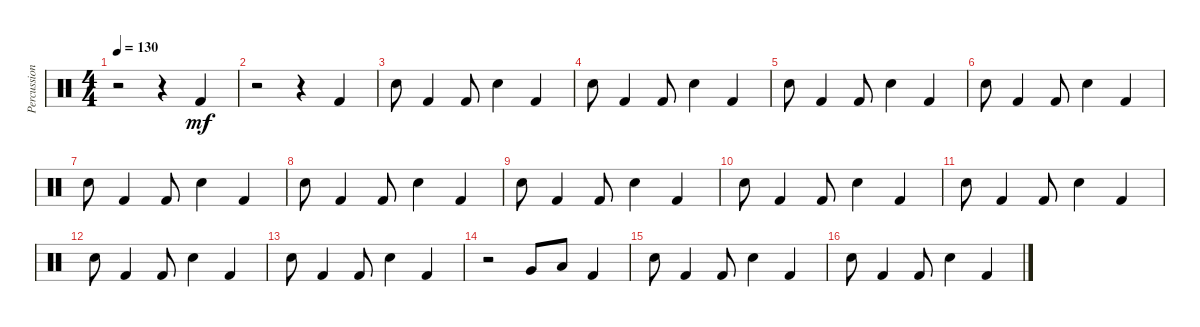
\track ("Percussion" "Percussion") {instrument percussion}
\staff {score}
\articulation defaults
\ts (4 4)
\tempo 130
\clef neutral
\ks c
r.2{dy mf} r.4 "Kick (hit) 2".4 |
r.2 r.4 "Kick (hit) 2".4 |
"Electric Snare (hit)".8 "Kick (hit) 2".4 "Kick (hit) 2".8 "Electric Snare (hit)".4 "Kick (hit) 2".4 |
"Electric Snare (hit)".8 "Kick (hit) 2".4 "Kick (hit) 2".8 "Electric Snare (hit)".4 "Kick (hit) 2".4 |
"Electric Snare (hit)".8 "Kick (hit) 2".4 "Kick (hit) 2".8 "Electric Snare (hit)".4 "Kick (hit) 2".4 |
"Electric Snare (hit)".8 "Kick (hit) 2".4 "Kick (hit) 2".8 "Electric Snare (hit)".4 "Kick (hit) 2".4 |
"Electric Snare (hit)".8 "Kick (hit) 2".4 "Kick (hit) 2".8 "Electric Snare (hit)".4 "Kick (hit) 2".4 |
"Electric Snare (hit)".8 "Kick (hit) 2".4 "Kick (hit) 2".8 "Electric Snare (hit)".4 "Kick (hit) 2".4 |
"Electric Snare (hit)".8 "Kick (hit) 2".4 "Kick (hit) 2".8 "Electric Snare (hit)".4 "Kick (hit) 2".4 |
"Electric Snare (hit)".8 "Kick (hit) 2".4 "Kick (hit) 2".8 "Electric Snare (hit)".4 "Kick (hit) 2".4 |
"Electric Snare (hit)".8 "Kick (hit) 2".4 "Kick (hit) 2".8 "Electric Snare (hit)".4 "Kick (hit) 2".4 |
"Electric Snare (hit)".8 "Kick (hit) 2".4 "Kick (hit) 2".8 "Electric Snare (hit)".4 "Kick (hit) 2".4 |
"Electric Snare (hit)".8 "Kick (hit) 2".4 "Kick (hit) 2".8 "Electric Snare (hit)".4 "Kick (hit) 2".4 |
r.2 "Very Low Tom (hit)".8 "Low Tom (hit)".8 "Kick (hit) 2".4 |
"Electric Snare (hit)".8 "Kick (hit) 2".4 "Kick (hit) 2".8 "Electric Snare (hit)".4 "Kick (hit) 2".4 |
"Electric Snare (hit)".8 "Kick (hit) 2".4 "Kick (hit) 2".8 "Electric Snare (hit)".4 "Kick (hit) 2".4
